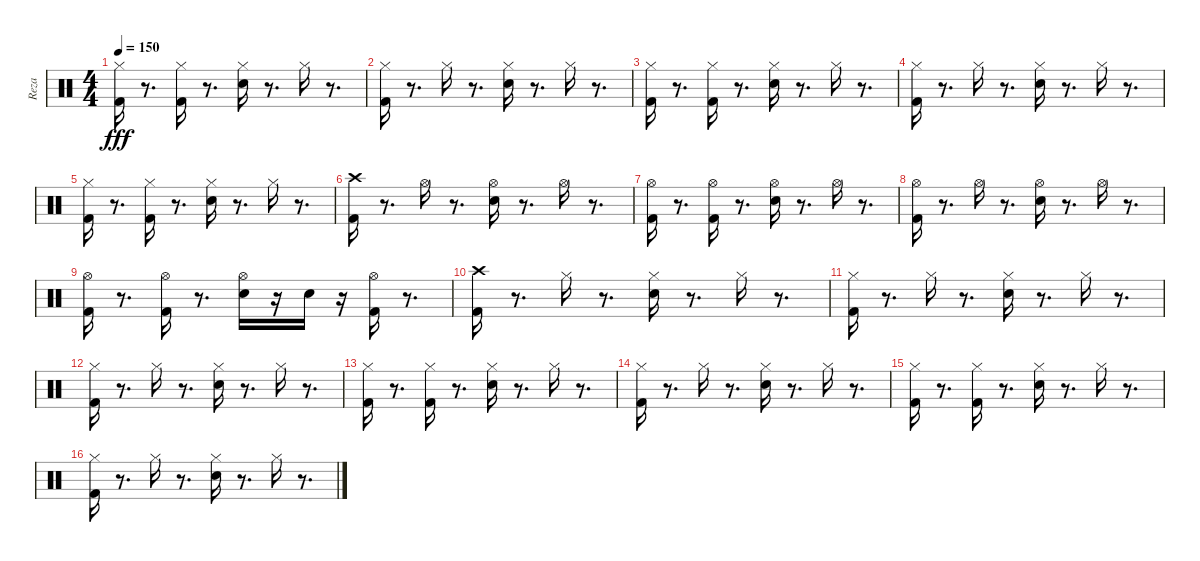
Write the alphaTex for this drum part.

\track ("Reza" "Reza") {instrument percussion}
\staff {score}
\articulation defaults
\ts (4 4)
\tempo 150
\clef neutral
\ks c
("Kick (hit) 2" "Hi-Hat (closed)").16{dy fff} r.8{d} ("Kick (hit) 2" "Hi-Hat (closed)").16 r.8{d} ("Snare (hit) 2" "Hi-Hat (closed)").16 r.8{d} "Hi-Hat (closed)".16 r.8{d} |
("Kick (hit) 2" "Hi-Hat (closed)").16 r.8{d} "Hi-Hat (closed)".16 r.8{d} ("Hi-Hat (closed)" "Snare (hit) 2").16 r.8{d} "Hi-Hat (closed)".16 r.8{d} |
("Kick (hit) 2" "Hi-Hat (closed)").16 r.8{d} ("Kick (hit) 2" "Hi-Hat (closed)").16 r.8{d} ("Snare (hit) 2" "Hi-Hat (closed)").16 r.8{d} "Hi-Hat (closed)".16 r.8{d} |
("Kick (hit) 2" "Hi-Hat (closed)").16 r.8{d} "Hi-Hat (closed)".16 r.8{d} ("Snare (hit) 2" "Hi-Hat (closed)").16 r.8{d} "Hi-Hat (closed)".16 r.8{d} |
("Kick (hit) 2" "Hi-Hat (closed)").16 r.8{d} ("Kick (hit) 2" "Hi-Hat (closed)").16 r.8{d} ("Snare (hit) 2" "Hi-Hat (closed)").16 r.8{d} "Hi-Hat (closed)".16 r.8{d} |
("Kick (hit) 2" "Crash high (hit)").16 r.8{d} "Hi-Hat (open)".16 r.8{d} ("Snare (hit) 2" "Hi-Hat (open)").16 r.8{d} "Hi-Hat (open)".16 r.8{d} |
("Kick (hit) 2" "Hi-Hat (open)").16 r.8{d} ("Hi-Hat (open)" "Kick (hit) 2").16 r.8{d} ("Snare (hit) 2" "Hi-Hat (open)").16 r.8{d} "Hi-Hat (open)".16 r.8{d} |
("Kick (hit) 2" "Hi-Hat (open)").16 r.8{d} "Hi-Hat (open)".16 r.8{d} ("Snare (hit) 2" "Hi-Hat (open)").16 r.8{d} "Hi-Hat (open)".16 r.8{d} |
("Kick (hit) 2" "Hi-Hat (open)").16 r.8{d} ("Kick (hit) 2" "Hi-Hat (open)").16 r.8{d} ("Hi-Hat (open)" "Snare (hit) 2").16 r.16 "Snare (hit) 2".16 r.16 ("Kick (hit) 2" "Hi-Hat (open)").16 r.8{d} |
("Crash high (hit)" "Kick (hit) 2").16 r.8{d} "Hi-Hat (closed)".16 r.8{d} ("Snare (hit) 2" "Hi-Hat (closed)").16 r.8{d} "Hi-Hat (closed)".16 r.8{d} |
("Hi-Hat (closed)" "Kick (hit) 2").16 r.8{d} "Hi-Hat (closed)".16 r.8{d} ("Hi-Hat (closed)" "Snare (hit) 2").16 r.8{d} "Hi-Hat (closed)".16 r.8{d} |
("Kick (hit) 2" "Hi-Hat (closed)").16 r.8{d} "Hi-Hat (closed)".16 r.8{d} ("Hi-Hat (closed)" "Snare (hit) 2").16 r.8{d} "Hi-Hat (closed)".16 r.8{d} |
("Kick (hit) 2" "Hi-Hat (closed)").16 r.8{d} ("Kick (hit) 2" "Hi-Hat (closed)").16 r.8{d} ("Snare (hit) 2" "Hi-Hat (closed)").16 r.8{d} "Hi-Hat (closed)".16 r.8{d} |
("Kick (hit) 2" "Hi-Hat (closed)").16 r.8{d} "Hi-Hat (closed)".16 r.8{d} ("Snare (hit) 2" "Hi-Hat (closed)").16 r.8{d} "Hi-Hat (closed)".16 r.8{d} |
("Kick (hit) 2" "Hi-Hat (closed)").16 r.8{d} ("Hi-Hat (closed)" "Kick (hit) 2").16 r.8{d} ("Hi-Hat (closed)" "Snare (hit) 2").16 r.8{d} "Hi-Hat (closed)".16 r.8{d} |
("Hi-Hat (closed)" "Kick (hit) 2").16 r.8{d} "Hi-Hat (closed)".16 r.8{d} ("Snare (hit) 2" "Hi-Hat (closed)").16 r.8{d} "Hi-Hat (closed)".16 r.8{d}
